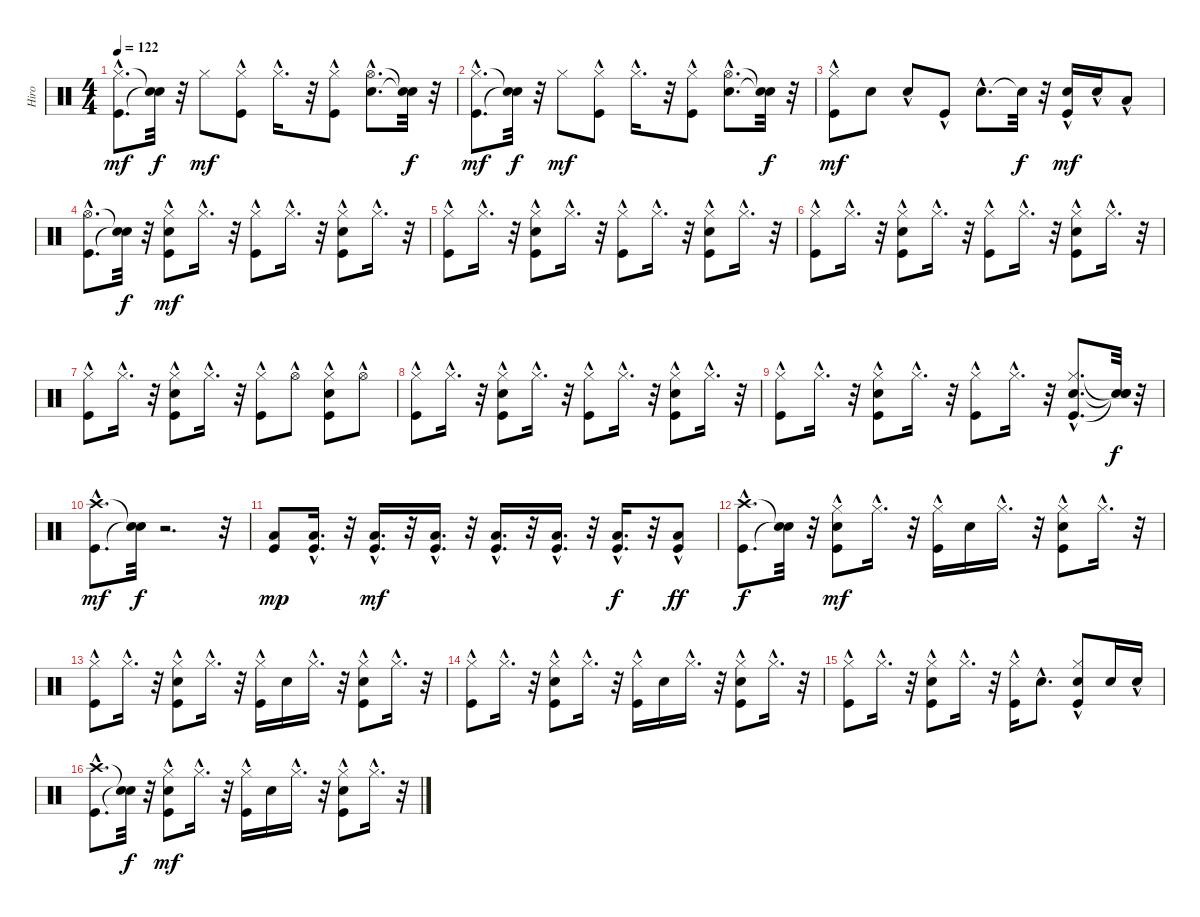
\track ("Hiro" "Hiro") {instrument percussion}
\staff {score}
\articulation defaults
\ts (4 4)
\tempo 122
\clef neutral
\ks c
("Kick (hit)"{hac} "Hi-Hat (closed)"{hac}).8{d dy mf} ("Snare (hit)"{t} "Snare (hit)"{t}).32{dy f} r.32 "Hi-Hat (closed)".8{dy mf} ("Hi-Hat (closed)"{hac} "Kick (hit)"{hac}).8 "Hi-Hat (closed)"{hac}.16{d} r.32 ("Hi-Hat (closed)"{hac} "Kick (hit)"{hac}).8 ("Electric Snare (hit)"{hac} "Hi-Hat (open)"{hac}).8{d} ("Snare (hit)"{t} "Snare (hit)"{t}).32{dy f} r.32 |
("Kick (hit)"{hac} "Hi-Hat (closed)"{hac}).8{d dy mf} ("Snare (hit)"{t} "Snare (hit)"{t}).32{dy f} r.32 "Hi-Hat (closed)".8{dy mf} ("Hi-Hat (closed)"{hac} "Kick (hit)"{hac}).8 "Hi-Hat (closed)"{hac}.16{d} r.32 ("Hi-Hat (closed)"{hac} "Kick (hit)"{hac}).8 ("Electric Snare (hit)"{hac} "Hi-Hat (open)"{hac}).8{d} ("Snare (hit)"{t} "Snare (hit)"{t}).32{dy f} r.32 |
("Hi-Hat (closed)"{hac} "Kick (hit)"{hac}).8{dy mf} "Electric Snare (hit)".8 "Electric Snare (hit)"{hac}.8 "Kick (hit)"{hac}.8 "Electric Snare (hit)"{hac}.8{d} "Snare (hit)"{t}.32{dy f} r.32 ("Electric Snare (hit)" "Kick (hit)"{hac}).16{dy mf} "Electric Snare (hit)"{hac}.16 "Low Floor Tom (hit)"{hac}.8 |
("Hi-Hat (open)"{hac} "Kick (hit)"{hac}).8{d} ("Snare (hit)"{t} "Snare (hit)"{t}).32{dy f} r.32 ("Electric Snare (hit)"{hac} "Hi-Hat (closed)" "Kick (hit)"{hac}).8{dy mf} "Hi-Hat (closed)"{hac}.16{d} r.32 ("Hi-Hat (closed)"{hac} "Kick (hit)"{hac}).8 "Hi-Hat (closed)"{hac}.16{d} r.32 ("Electric Snare (hit)"{hac} "Hi-Hat (closed)"{hac} "Kick (hit)"{hac}).8 "Hi-Hat (closed)"{hac}.16{d} r.32 |
("Hi-Hat (closed)"{hac} "Kick (hit)"{hac}).8 "Hi-Hat (closed)"{hac}.16{d} r.32 ("Electric Snare (hit)"{hac} "Hi-Hat (closed)"{hac} "Kick (hit)"{hac}).8 "Hi-Hat (closed)"{hac}.16{d} r.32 ("Hi-Hat (closed)"{hac} "Kick (hit)"{hac}).8 "Hi-Hat (closed)"{hac}.16{d} r.32 ("Electric Snare (hit)"{hac} "Hi-Hat (closed)"{hac} "Kick (hit)"{hac}).8 "Hi-Hat (closed)"{hac}.16{d} r.32 |
("Hi-Hat (closed)"{hac} "Kick (hit)"{hac}).8 "Hi-Hat (closed)"{hac}.16{d} r.32 ("Electric Snare (hit)"{hac} "Hi-Hat (closed)"{hac} "Kick (hit)"{hac}).8 "Hi-Hat (closed)"{hac}.16{d} r.32 ("Hi-Hat (closed)"{hac} "Kick (hit)"{hac}).8 "Hi-Hat (closed)"{hac}.16{d} r.32 ("Electric Snare (hit)"{hac} "Hi-Hat (closed)"{hac} "Kick (hit)"{hac}).8 "Hi-Hat (closed)"{hac}.16{d} r.32 |
("Hi-Hat (closed)"{hac} "Kick (hit)"{hac}).8 "Hi-Hat (closed)"{hac}.16{d} r.32 ("Electric Snare (hit)"{hac} "Hi-Hat (closed)"{hac} "Kick (hit)"{hac}).8 "Hi-Hat (closed)"{hac}.16{d} r.32 ("Hi-Hat (closed)"{hac} "Kick (hit)"{hac}).8 "Hi-Hat (open)"{hac}.8 ("Electric Snare (hit)"{hac} "Hi-Hat (closed)"{hac} "Kick (hit)"{hac}).8 "Hi-Hat (open)"{hac}.8 |
("Hi-Hat (closed)" "Kick (hit)"{hac}).8 "Hi-Hat (closed)"{hac}.16{d} r.32 ("Electric Snare (hit)"{hac} "Hi-Hat (closed)"{hac} "Kick (hit)"{hac}).8 "Hi-Hat (closed)"{hac}.16{d} r.32 ("Hi-Hat (closed)"{hac} "Kick (hit)"{hac}).8 "Hi-Hat (closed)"{hac}.16{d} r.32 ("Electric Snare (hit)"{hac} "Hi-Hat (closed)"{hac} "Kick (hit)"{hac}).8 "Hi-Hat (closed)"{hac}.16{d} r.32 |
("Hi-Hat (closed)"{hac} "Kick (hit)"{hac}).8 "Hi-Hat (closed)"{hac}.16{d} r.32 ("Electric Snare (hit)"{hac} "Hi-Hat (closed)"{hac} "Kick (hit)"{hac}).8 "Hi-Hat (closed)"{hac}.16{d} r.32 ("Hi-Hat (closed)"{hac} "Kick (hit)"{hac}).8 "Hi-Hat (closed)"{hac}.16{d} r.32 ("Electric Snare (hit)"{hac} "Hi-Hat (closed)"{hac} "Kick (hit)"{hac}).8{d} ("Snare (hit)"{t} "Snare (hit)"{t} "Snare (hit)"{t}).32{dy f} r.32 |
("Kick (hit)"{hac} "Crash high (hit)"{hac}).8{d dy mf} ("Snare (hit)"{t} "Snare (hit)"{t}).32{dy f} r.2{d} r.32 |
("Low Tom (hit)" "Kick (hit)").8{dy mp} ("Low Tom (hit)"{hac} "Kick (hit)"{hac}).16{d} r.32 ("Low Tom (hit)"{hac} "Kick (hit)"{hac}).16{d dy mf} r.32 ("Low Tom (hit)"{hac} "Kick (hit)"{hac}).16{d} r.32 ("Low Tom (hit)"{hac} "Kick (hit)"{hac}).16{d} r.32 ("Low Tom (hit)"{hac} "Kick (hit)"{hac}).16{d} r.32 ("Low Tom (hit)"{hac} "Kick (hit)"{hac}).16{d dy f} r.32 ("Low Tom (hit)"{hac} "Kick (hit)"{hac}).8{dy ff} |
("Kick (hit)"{hac} "Crash high (hit)"{hac}).8{d dy f} ("Snare (hit)"{t} "Snare (hit)"{t}).32 r.32 ("Kick (hit)"{hac} "Electric Snare (hit)"{hac} "Hi-Hat (closed)").8{dy mf} "Hi-Hat (closed)"{hac}.16{d} r.32 ("Kick (hit)"{hac} "Hi-Hat (closed)"{hac}).16 "Electric Snare (hit)".16 "Hi-Hat (closed)"{hac}.16{d} r.32 ("Electric Snare (hit)"{hac} "Hi-Hat (closed)"{hac} "Kick (hit)"{hac}).8 "Hi-Hat (closed)"{hac}.16{d} r.32 |
("Kick (hit)"{hac} "Hi-Hat (closed)"{hac}).8 "Hi-Hat (closed)"{hac}.16{d} r.32 ("Kick (hit)"{hac} "Electric Snare (hit)"{hac} "Hi-Hat (closed)"{hac}).8 "Hi-Hat (closed)"{hac}.16{d} r.32 ("Kick (hit)"{hac} "Hi-Hat (closed)"{hac}).16 "Electric Snare (hit)".16 "Hi-Hat (closed)"{hac}.16{d} r.32 ("Electric Snare (hit)"{hac} "Hi-Hat (closed)"{hac} "Kick (hit)"{hac}).8 "Hi-Hat (closed)"{hac}.16{d} r.32 |
("Kick (hit)"{hac} "Hi-Hat (closed)"{hac}).8 "Hi-Hat (closed)"{hac}.16{d} r.32 ("Kick (hit)"{hac} "Electric Snare (hit)"{hac} "Hi-Hat (closed)"{hac}).8 "Hi-Hat (closed)"{hac}.16{d} r.32 ("Kick (hit)"{hac} "Hi-Hat (closed)"{hac}).16 "Electric Snare (hit)".16 "Hi-Hat (closed)"{hac}.16{d} r.32 ("Electric Snare (hit)"{hac} "Hi-Hat (closed)"{hac} "Kick (hit)"{hac}).8 "Hi-Hat (closed)"{hac}.16{d} r.32 |
("Kick (hit)"{hac} "Hi-Hat (closed)"{hac}).8 "Hi-Hat (closed)"{hac}.16{d} r.32 ("Electric Snare (hit)"{hac} "Kick (hit)"{hac} "Hi-Hat (closed)"{hac}).8 "Hi-Hat (closed)"{hac}.16{d} r.32 ("Kick (hit)"{hac} "Hi-Hat (closed)"{hac}).16 "Electric Snare (hit)"{hac}.8{d} ("Electric Snare (hit)" "Kick (hit)"{hac} "Hi-Hat (closed)"{hac}).8 "Electric Snare (hit)".16 "Electric Snare (hit)"{hac}.16 |
("Kick (hit)"{hac} "Crash high (hit)"{hac}).8{d} ("Snare (hit)"{t} "Snare (hit)"{t}).32{dy f} r.32 ("Kick (hit)"{hac} "Electric Snare (hit)"{hac} "Hi-Hat (closed)").8{dy mf} "Hi-Hat (closed)"{hac}.16{d} r.32 ("Kick (hit)"{hac} "Hi-Hat (closed)"{hac}).16 "Electric Snare (hit)".16 "Hi-Hat (closed)"{hac}.16{d} r.32 ("Electric Snare (hit)"{hac} "Hi-Hat (closed)"{hac} "Kick (hit)"{hac}).8 "Hi-Hat (closed)"{hac}.16{d} r.32
